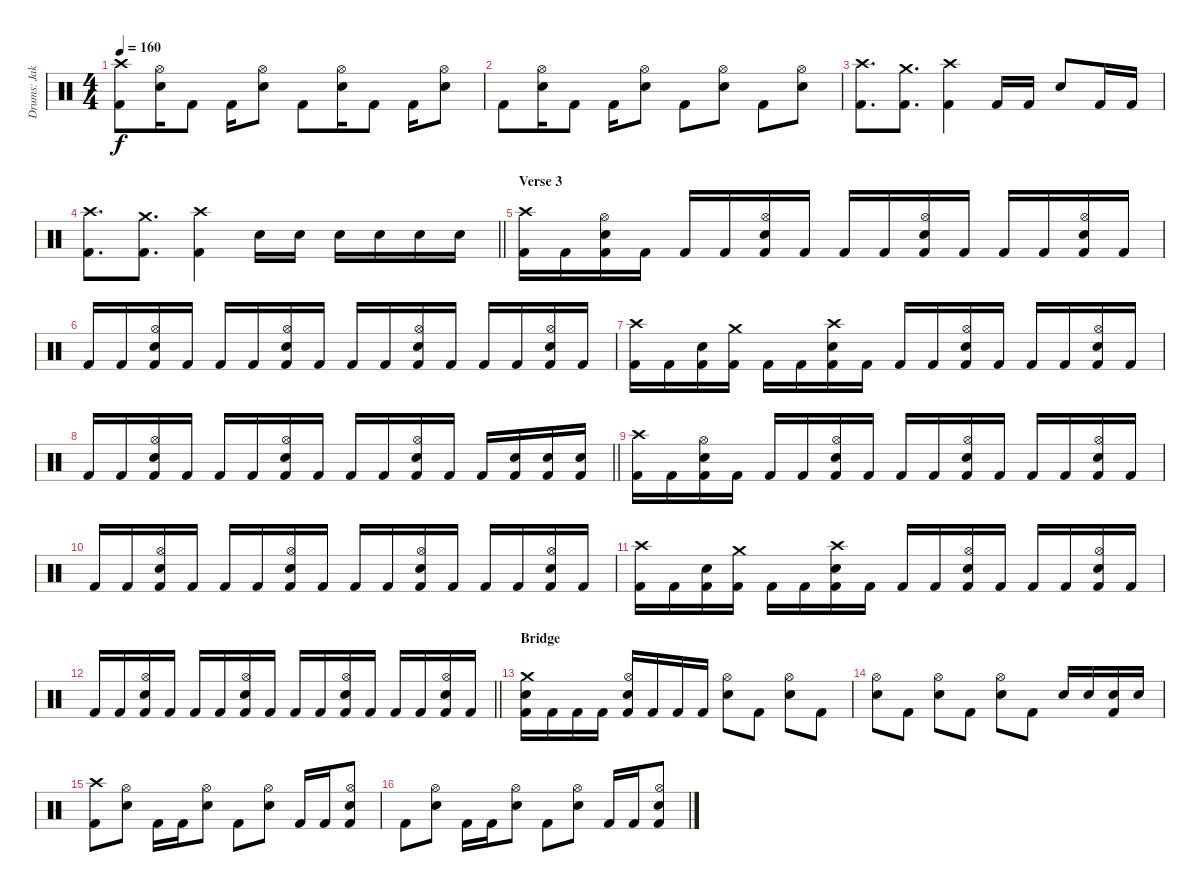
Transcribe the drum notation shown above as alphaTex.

\track ("Drums: Jake" "Drums: Jak") {instrument percussion}
\staff {score}
\articulation defaults
\ts (4 4)
\tempo 160
\clef neutral
\ks c
("Crash high (hit)" "Kick (hit) 2").8{dy f} ("Hi-Hat (open)" "Snare (hit) 2").16 "Kick (hit) 2".8 "Kick (hit) 2".16 ("Hi-Hat (open)" "Snare (hit) 2").8 "Kick (hit) 2".8 ("Hi-Hat (open)" "Snare (hit) 2").16 "Kick (hit) 2".8 "Kick (hit) 2".16 ("Hi-Hat (open)" "Snare (hit) 2").8 |
"Kick (hit) 2".8 ("Hi-Hat (open)" "Snare (hit) 2").16 "Kick (hit) 2".8 "Kick (hit) 2".16 ("Hi-Hat (open)" "Snare (hit) 2").8 "Kick (hit) 2".8 ("Hi-Hat (open)" "Snare (hit) 2").8 "Kick (hit) 2".8 ("Hi-Hat (open)" "Snare (hit) 2").8 |
("Crash high (hit)" "Kick (hit) 2").8{d} ("Crash medium (hit)" "Kick (hit) 2").8{d} ("Crash high (hit)" "Kick (hit) 2").4 "Kick (hit) 2".16 "Kick (hit) 2".16 "Snare (hit) 2".8 "Kick (hit) 2".16 "Kick (hit) 2".16 |
\barLineRight lightlight
("Crash high (hit)" "Kick (hit) 2").8{d} ("Crash medium (hit)" "Kick (hit) 2").8{d} ("Crash high (hit)" "Kick (hit) 2").4 "Snare (hit) 2".16 "Snare (hit) 2".16 "Snare (hit) 2".16 "Snare (hit) 2".16 "Snare (hit) 2".16 "Snare (hit) 2".16 |
\section ("" "Verse 3")
("Crash high (hit)" "Kick (hit) 2").16 "Kick (hit) 2".16 ("Hi-Hat (open)" "Snare (hit) 2" "Kick (hit) 2").16 "Kick (hit) 2".16 "Kick (hit) 2".16 "Kick (hit) 2".16 ("Hi-Hat (open)" "Snare (hit) 2" "Kick (hit) 2").16 "Kick (hit) 2".16 "Kick (hit) 2".16 "Kick (hit) 2".16 ("Hi-Hat (open)" "Snare (hit) 2" "Kick (hit) 2").16 "Kick (hit) 2".16 "Kick (hit) 2".16 "Kick (hit) 2".16 ("Hi-Hat (open)" "Snare (hit) 2" "Kick (hit) 2").16 "Kick (hit) 2".16 |
"Kick (hit) 2".16 "Kick (hit) 2".16 ("Hi-Hat (open)" "Snare (hit) 2" "Kick (hit) 2").16 "Kick (hit) 2".16 "Kick (hit) 2".16 "Kick (hit) 2".16 ("Hi-Hat (open)" "Snare (hit) 2" "Kick (hit) 2").16 "Kick (hit) 2".16 "Kick (hit) 2".16 "Kick (hit) 2".16 ("Hi-Hat (open)" "Snare (hit) 2" "Kick (hit) 2").16 "Kick (hit) 2".16 "Kick (hit) 2".16 "Kick (hit) 2".16 ("Hi-Hat (open)" "Snare (hit) 2" "Kick (hit) 2").16 "Kick (hit) 2".16 |
("Crash high (hit)" "Kick (hit) 2").16 "Kick (hit) 2".16 ("Snare (hit) 2" "Kick (hit) 2").16 ("Crash medium (hit)" "Kick (hit) 2").16 "Kick (hit) 2".16 "Kick (hit) 2".16 ("Crash high (hit)" "Snare (hit) 2" "Kick (hit) 2").16 "Kick (hit) 2".16 "Kick (hit) 2".16 "Kick (hit) 2".16 ("Hi-Hat (open)" "Snare (hit) 2" "Kick (hit) 2").16 "Kick (hit) 2".16 "Kick (hit) 2".16 "Kick (hit) 2".16 ("Hi-Hat (open)" "Snare (hit) 2" "Kick (hit) 2").16 "Kick (hit) 2".16 |
\barLineRight lightlight "Kick (hit) 2".16 "Kick (hit) 2".16
("Hi-Hat (open)" "Snare (hit) 2" "Kick (hit) 2").16 "Kick (hit) 2".16 "Kick (hit) 2".16 "Kick (hit) 2".16 ("Hi-Hat (open)" "Snare (hit) 2" "Kick (hit) 2").16 "Kick (hit) 2".16 "Kick (hit) 2".16 "Kick (hit) 2".16 ("Hi-Hat (open)" "Snare (hit) 2" "Kick (hit) 2").16 "Kick (hit) 2".16 "Kick (hit) 2".16 ("Snare (hit) 2" "Kick (hit) 2").16 ("Snare (hit) 2" "Kick (hit) 2").16 ("Snare (hit) 2" "Kick (hit) 2").16 |
("Crash high (hit)" "Kick (hit) 2").16 "Kick (hit) 2".16 ("Hi-Hat (open)" "Snare (hit) 2" "Kick (hit) 2").16 "Kick (hit) 2".16 "Kick (hit) 2".16 "Kick (hit) 2".16 ("Hi-Hat (open)" "Snare (hit) 2" "Kick (hit) 2").16 "Kick (hit) 2".16 "Kick (hit) 2".16 "Kick (hit) 2".16 ("Hi-Hat (open)" "Snare (hit) 2" "Kick (hit) 2").16 "Kick (hit) 2".16 "Kick (hit) 2".16 "Kick (hit) 2".16 ("Hi-Hat (open)" "Snare (hit) 2" "Kick (hit) 2").16 "Kick (hit) 2".16 |
"Kick (hit) 2".16 "Kick (hit) 2".16 ("Hi-Hat (open)" "Snare (hit) 2" "Kick (hit) 2").16 "Kick (hit) 2".16 "Kick (hit) 2".16 "Kick (hit) 2".16 ("Hi-Hat (open)" "Snare (hit) 2" "Kick (hit) 2").16 "Kick (hit) 2".16 "Kick (hit) 2".16 "Kick (hit) 2".16 ("Hi-Hat (open)" "Snare (hit) 2" "Kick (hit) 2").16 "Kick (hit) 2".16 "Kick (hit) 2".16 "Kick (hit) 2".16 ("Hi-Hat (open)" "Snare (hit) 2" "Kick (hit) 2").16 "Kick (hit) 2".16 |
("Crash high (hit)" "Kick (hit) 2").16 "Kick (hit) 2".16 ("Snare (hit) 2" "Kick (hit) 2").16 ("Crash medium (hit)" "Kick (hit) 2").16 "Kick (hit) 2".16 "Kick (hit) 2".16 ("Crash high (hit)" "Snare (hit) 2" "Kick (hit) 2").16 "Kick (hit) 2".16 "Kick (hit) 2".16 "Kick (hit) 2".16 ("Hi-Hat (open)" "Snare (hit) 2" "Kick (hit) 2").16 "Kick (hit) 2".16 "Kick (hit) 2".16 "Kick (hit) 2".16 ("Hi-Hat (open)" "Snare (hit) 2" "Kick (hit) 2").16 "Kick (hit) 2".16 |
\barLineRight lightlight "Kick (hit) 2".16 "Kick (hit) 2".16
("Hi-Hat (open)" "Snare (hit) 2" "Kick (hit) 2").16 "Kick (hit) 2".16 "Kick (hit) 2".16 "Kick (hit) 2".16 ("Hi-Hat (open)" "Snare (hit) 2" "Kick (hit) 2").16 "Kick (hit) 2".16 "Kick (hit) 2".16 "Kick (hit) 2".16 ("Hi-Hat (open)" "Snare (hit) 2" "Kick (hit) 2").16 "Kick (hit) 2".16 "Kick (hit) 2".16 "Kick (hit) 2".16 ("Hi-Hat (open)" "Snare (hit) 2" "Kick (hit) 2").16 "Kick (hit) 2".16 |
\section ("" "Bridge")
("Crash medium (hit)" "Snare (hit) 2" "Kick (hit) 2").16 "Kick (hit) 2".16 "Kick (hit) 2".16 "Kick (hit) 2".16 ("Hi-Hat (open)" "Snare (hit) 2" "Kick (hit) 2").16 "Kick (hit) 2".16 "Kick (hit) 2".16 "Kick (hit) 2".16 ("Hi-Hat (open)" "Snare (hit) 2").8 "Kick (hit) 2".8 ("Hi-Hat (open)" "Snare (hit) 2").8 "Kick (hit) 2".8 |
("Hi-Hat (open)" "Snare (hit) 2").8 "Kick (hit) 2".8 ("Hi-Hat (open)" "Snare (hit) 2").8 "Kick (hit) 2".8 ("Hi-Hat (open)" "Snare (hit) 2").8 "Kick (hit) 2".8 "Snare (hit) 2".16 "Snare (hit) 2".16 ("Snare (hit) 2" "Kick (hit) 2").16 "Snare (hit) 2".16 |
("Crash high (hit)" "Kick (hit) 2").8 ("Hi-Hat (open)" "Snare (hit) 2").8 "Kick (hit) 2".16 "Kick (hit) 2".16 ("Hi-Hat (open)" "Snare (hit) 2").8 "Kick (hit) 2".8 ("Hi-Hat (open)" "Snare (hit) 2").8 "Kick (hit) 2".16 "Kick (hit) 2".16 ("Hi-Hat (open)" "Snare (hit) 2" "Kick (hit) 2").8 |
"Kick (hit) 2".8 ("Hi-Hat (open)" "Snare (hit) 2").8 "Kick (hit) 2".16 "Kick (hit) 2".16 ("Hi-Hat (open)" "Snare (hit) 2").8 "Kick (hit) 2".8 ("Hi-Hat (open)" "Snare (hit) 2").8 "Kick (hit) 2".16 "Kick (hit) 2".16 ("Hi-Hat (open)" "Snare (hit) 2" "Kick (hit) 2").8
